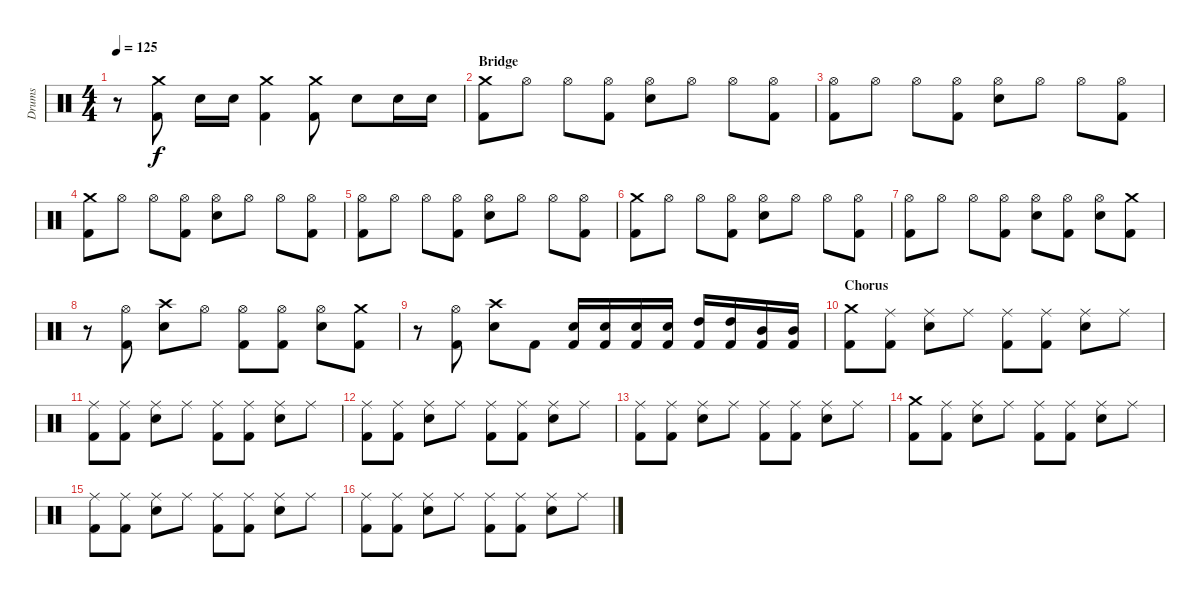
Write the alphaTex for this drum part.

\track ("Drums" "Drums") {instrument percussion}
\staff {score}
\articulation defaults
\ts (4 4)
\tempo 125
\clef neutral
\ks c
r.8{dy f} ("Crash medium (hit)" "Kick (hit) 2").8 "Snare (hit) 2".16 "Snare (hit) 2".16 ("Crash medium (hit)" "Kick (hit) 2").4 ("Crash medium (hit)" "Kick (hit) 2").8 "Snare (hit) 2".8 "Snare (hit) 2".16 "Snare (hit) 2".16 |
\section ("" "Bridge")
("Crash medium (hit)" "Kick (hit) 2").8 "Hi-Hat (open)".8 "Hi-Hat (open)".8 ("Hi-Hat (open)" "Kick (hit) 2").8 ("Hi-Hat (open)" "Snare (hit) 2").8 "Hi-Hat (open)".8 "Hi-Hat (open)".8 ("Hi-Hat (open)" "Kick (hit) 2").8 |
("Hi-Hat (open)" "Kick (hit) 2").8 "Hi-Hat (open)".8 "Hi-Hat (open)".8 ("Hi-Hat (open)" "Kick (hit) 2").8 ("Hi-Hat (open)" "Snare (hit) 2").8 "Hi-Hat (open)".8 "Hi-Hat (open)".8 ("Hi-Hat (open)" "Kick (hit) 2").8 |
("Crash medium (hit)" "Kick (hit) 2").8 "Hi-Hat (open)".8 "Hi-Hat (open)".8 ("Hi-Hat (open)" "Kick (hit) 2").8 ("Hi-Hat (open)" "Snare (hit) 2").8 "Hi-Hat (open)".8 "Hi-Hat (open)".8 ("Hi-Hat (open)" "Kick (hit) 2").8 |
("Hi-Hat (open)" "Kick (hit) 2").8 "Hi-Hat (open)".8 "Hi-Hat (open)".8 ("Hi-Hat (open)" "Kick (hit) 2").8 ("Hi-Hat (open)" "Snare (hit) 2").8 "Hi-Hat (open)".8 "Hi-Hat (open)".8 ("Hi-Hat (open)" "Kick (hit) 2").8 |
("Crash medium (hit)" "Kick (hit) 2").8 "Hi-Hat (open)".8 "Hi-Hat (open)".8 ("Hi-Hat (open)" "Kick (hit) 2").8 ("Hi-Hat (open)" "Snare (hit) 2").8 "Hi-Hat (open)".8 "Hi-Hat (open)".8 ("Hi-Hat (open)" "Kick (hit) 2").8 |
("Hi-Hat (open)" "Kick (hit) 2").8 "Hi-Hat (open)".8 "Hi-Hat (open)".8 ("Hi-Hat (open)" "Kick (hit) 2").8 ("Hi-Hat (open)" "Snare (hit) 2").8 ("Hi-Hat (open)" "Kick (hit) 2").8 ("Hi-Hat (open)" "Snare (hit) 2").8 ("Crash medium (hit)" "Kick (hit) 2").8 |
r.8 ("Hi-Hat (open)" "Kick (hit) 2").8 ("Crash high (hit)" "Snare (hit) 2").8 "Hi-Hat (open)".8 ("Hi-Hat (open)" "Kick (hit) 2").8 ("Hi-Hat (open)" "Kick (hit) 2").8 ("Hi-Hat (open)" "Snare (hit) 2").8 ("Crash medium (hit)" "Kick (hit) 2").8 |
r.8 ("Hi-Hat (open)" "Kick (hit) 2").8 ("Crash high (hit)" "Snare (hit) 2").8 "Kick (hit) 2".8 ("Snare (hit) 2" "Kick (hit) 2").16 ("Snare (hit) 2" "Kick (hit) 2").16 ("Snare (hit) 2" "Kick (hit) 2").16 ("Snare (hit) 2" "Kick (hit) 2").16 ("High Tom (hit)" "Kick (hit) 2").16 ("High Tom (hit)" "Kick (hit) 2").16 ("Mid Tom (hit)" "Kick (hit) 2").16 ("Mid Tom (hit)" "Kick (hit) 2").16 |
\section ("" "Chorus")
("Crash medium (hit)" "Kick (hit) 2").8 ("Ride (middle)" "Kick (hit) 2").8 ("Ride (middle)" "Snare (hit) 2").8 "Ride (middle)".8 ("Ride (middle)" "Kick (hit) 2").8 ("Ride (middle)" "Kick (hit) 2").8 ("Ride (middle)" "Snare (hit) 2").8 "Ride (middle)".8 |
("Ride (middle)" "Kick (hit) 2").8 ("Ride (middle)" "Kick (hit) 2").8 ("Ride (middle)" "Snare (hit) 2").8 "Ride (middle)".8 ("Ride (middle)" "Kick (hit) 2").8 ("Ride (middle)" "Kick (hit) 2").8 ("Ride (middle)" "Snare (hit) 2").8 "Ride (middle)".8 |
("Ride (middle)" "Kick (hit) 2").8 ("Ride (middle)" "Kick (hit) 2").8 ("Ride (middle)" "Snare (hit) 2").8 "Ride (middle)".8 ("Ride (middle)" "Kick (hit) 2").8 ("Ride (middle)" "Kick (hit) 2").8 ("Ride (middle)" "Snare (hit) 2").8 "Ride (middle)".8 |
("Ride (middle)" "Kick (hit) 2").8 ("Ride (middle)" "Kick (hit) 2").8 ("Ride (middle)" "Snare (hit) 2").8 "Ride (middle)".8 ("Ride (middle)" "Kick (hit) 2").8 ("Ride (middle)" "Kick (hit) 2").8 ("Ride (middle)" "Snare (hit) 2").8 "Ride (middle)".8 |
("Crash medium (hit)" "Kick (hit) 2").8 ("Ride (middle)" "Kick (hit) 2").8 ("Ride (middle)" "Snare (hit) 2").8 "Ride (middle)".8 ("Ride (middle)" "Kick (hit) 2").8 ("Ride (middle)" "Kick (hit) 2").8 ("Ride (middle)" "Snare (hit) 2").8 "Ride (middle)".8 |
("Ride (middle)" "Kick (hit) 2").8 ("Ride (middle)" "Kick (hit) 2").8 ("Ride (middle)" "Snare (hit) 2").8 "Ride (middle)".8 ("Ride (middle)" "Kick (hit) 2").8 ("Ride (middle)" "Kick (hit) 2").8 ("Ride (middle)" "Snare (hit) 2").8 "Ride (middle)".8 |
("Ride (middle)" "Kick (hit) 2").8 ("Ride (middle)" "Kick (hit) 2").8 ("Ride (middle)" "Snare (hit) 2").8 "Ride (middle)".8 ("Ride (middle)" "Kick (hit) 2").8 ("Ride (middle)" "Kick (hit) 2").8 ("Ride (middle)" "Snare (hit) 2").8 "Ride (middle)".8
